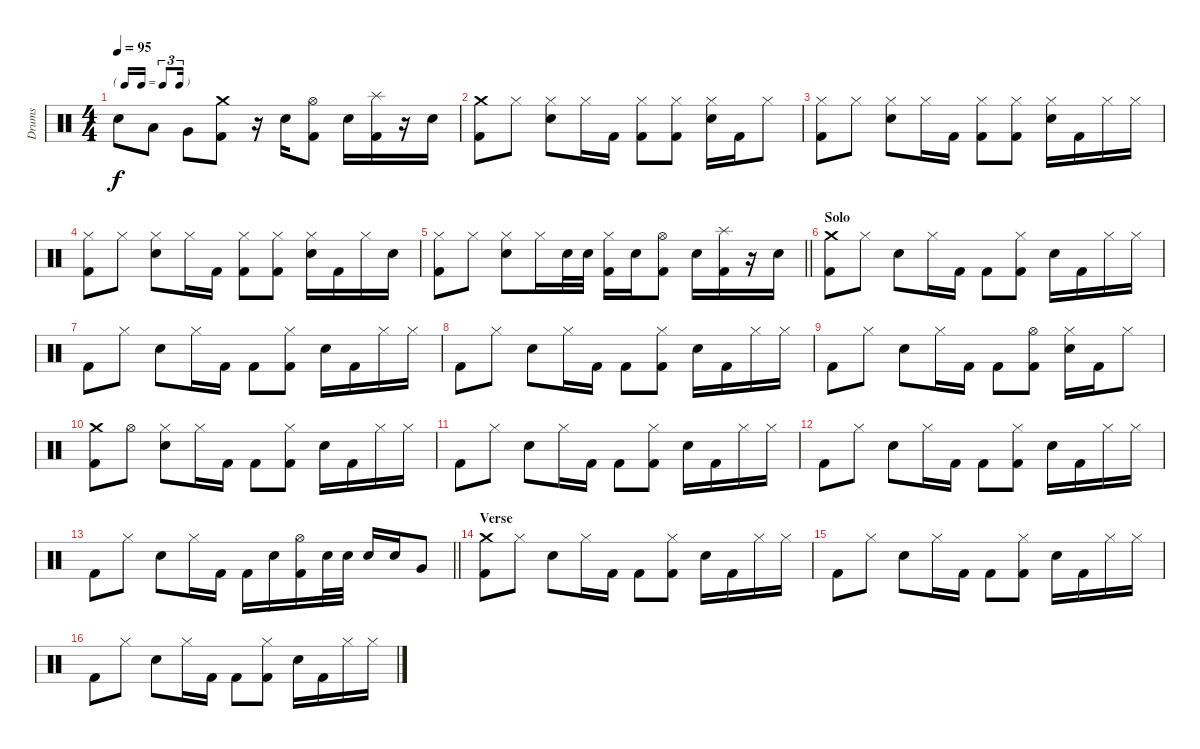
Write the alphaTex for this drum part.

\track ("Drums" "Drums") {instrument percussion}
\staff {score}
\articulation defaults
\ts (4 4)
\tf triplet16th
\tempo 95
\clef neutral
\ks c "Snare (hit) 2".8{dy f} "Low Tom (hit)".8 "Very Low Tom (hit)".8
("Crash medium (hit)" "Kick (hit) 2").8 r.16 "Snare (hit) 2".16 ("Hi-Hat (open)" "Kick (hit) 2").8 "Snare (hit) 2".16 ("Splash (hit)" "Kick (hit) 2").16 r.16 "Snare (hit) 2".16 |
("Crash medium (hit)" "Kick (hit) 2").8 "Hi-Hat (closed)".8 ("Hi-Hat (closed)" "Snare (hit) 2").8 "Hi-Hat (closed)".16 "Kick (hit) 2".16 ("Hi-Hat (closed)" "Kick (hit) 2").8 ("Hi-Hat (closed)" "Kick (hit) 2").8 ("Hi-Hat (closed)" "Snare (hit) 2").16 "Kick (hit) 2".16 "Hi-Hat (closed)".8 |
("Hi-Hat (closed)" "Kick (hit) 2").8 "Hi-Hat (closed)".8 ("Hi-Hat (closed)" "Snare (hit) 2").8 "Hi-Hat (closed)".16 "Kick (hit) 2".16 ("Hi-Hat (closed)" "Kick (hit) 2").8 ("Hi-Hat (closed)" "Kick (hit) 2").8 ("Hi-Hat (closed)" "Snare (hit) 2").16 "Kick (hit) 2".16 "Hi-Hat (closed)".16 "Hi-Hat (closed)".16 |
("Hi-Hat (closed)" "Kick (hit) 2").8 "Hi-Hat (closed)".8 ("Hi-Hat (closed)" "Snare (hit) 2").8 "Hi-Hat (closed)".16 "Kick (hit) 2".16 ("Hi-Hat (closed)" "Kick (hit) 2").8 ("Hi-Hat (closed)" "Kick (hit) 2").8 ("Hi-Hat (closed)" "Snare (hit) 2").16 "Kick (hit) 2".16 "Hi-Hat (closed)".16 "Snare (hit) 2".16 |
\barLineRight lightlight
("Hi-Hat (closed)" "Kick (hit) 2").8 "Hi-Hat (closed)".8 ("Hi-Hat (closed)" "Snare (hit) 2").8 "Hi-Hat (closed)".16 "Snare (hit) 2".32 "Snare (hit) 2".32 ("Hi-Hat (closed)" "Kick (hit) 2").16 "Snare (hit) 2".16 ("Hi-Hat (open)" "Kick (hit) 2").8 "Snare (hit) 2".16 ("Splash (hit)" "Kick (hit) 2").16 r.16 "Snare (hit) 2".16 |
\section ("" "Solo")
("Crash medium (hit)" "Kick (hit) 2").8 "Hi-Hat (closed)".8 "Snare (hit) 2".8 "Hi-Hat (closed)".16 "Kick (hit) 2".16 "Kick (hit) 2".8 ("Hi-Hat (closed)" "Kick (hit) 2").8 "Snare (hit) 2".16 "Kick (hit) 2".16 "Hi-Hat (closed)".16 "Hi-Hat (closed)".16 |
"Kick (hit) 2".8 "Hi-Hat (closed)".8 "Snare (hit) 2".8 "Hi-Hat (closed)".16 "Kick (hit) 2".16 "Kick (hit) 2".8 ("Hi-Hat (closed)" "Kick (hit) 2").8 "Snare (hit) 2".16 "Kick (hit) 2".16 "Hi-Hat (closed)".16 "Hi-Hat (closed)".16 |
"Kick (hit) 2".8 "Hi-Hat (closed)".8 "Snare (hit) 2".8 "Hi-Hat (closed)".16 "Kick (hit) 2".16 "Kick (hit) 2".8 ("Hi-Hat (closed)" "Kick (hit) 2").8 "Snare (hit) 2".16 "Kick (hit) 2".16 "Hi-Hat (closed)".16 "Hi-Hat (closed)".16 |
"Kick (hit) 2".8 "Hi-Hat (closed)".8 "Snare (hit) 2".8 "Hi-Hat (closed)".16 "Kick (hit) 2".16 "Kick (hit) 2".8 ("Hi-Hat (open)" "Kick (hit) 2").8 ("Hi-Hat (closed)" "Snare (hit) 2").16 "Kick (hit) 2".16 "Hi-Hat (closed)".8 |
("Crash medium (hit)" "Kick (hit) 2").8 "Hi-Hat (open)".8 ("Hi-Hat (closed)" "Snare (hit) 2").8 "Hi-Hat (closed)".16 "Kick (hit) 2".16 "Kick (hit) 2".8 ("Hi-Hat (closed)" "Kick (hit) 2").8 "Snare (hit) 2".16 "Kick (hit) 2".16 "Hi-Hat (closed)".16 "Hi-Hat (closed)".16 |
"Kick (hit) 2".8 "Hi-Hat (closed)".8 "Snare (hit) 2".8 "Hi-Hat (closed)".16 "Kick (hit) 2".16 "Kick (hit) 2".8 ("Hi-Hat (closed)" "Kick (hit) 2").8 "Snare (hit) 2".16 "Kick (hit) 2".16 "Hi-Hat (closed)".16 "Hi-Hat (closed)".16 |
"Kick (hit) 2".8 "Hi-Hat (closed)".8 "Snare (hit) 2".8 "Hi-Hat (closed)".16 "Kick (hit) 2".16 "Kick (hit) 2".8 ("Hi-Hat (closed)" "Kick (hit) 2").8 "Snare (hit) 2".16 "Kick (hit) 2".16 "Hi-Hat (closed)".16 "Hi-Hat (closed)".16 |
\barLineRight lightlight "Kick (hit) 2".8 "Hi-Hat (closed)".8 "Snare (hit) 2".8 "Hi-Hat (closed)".16 "Kick (hit) 2".16 "Kick (hit) 2".16 "Snare (hit) 2".16
("Hi-Hat (open)" "Kick (hit) 2").16 "Snare (hit) 2".32 "Snare (hit) 2".32 "Snare (hit) 2".16 "Snare (hit) 2".16 "Very Low Tom (hit)".8 |
\section ("" "Verse")
("Crash medium (hit)" "Kick (hit) 2").8 "Hi-Hat (closed)".8 "Snare (hit) 2".8 "Hi-Hat (closed)".16 "Kick (hit) 2".16 "Kick (hit) 2".8 ("Hi-Hat (closed)" "Kick (hit) 2").8 "Snare (hit) 2".16 "Kick (hit) 2".16 "Hi-Hat (closed)".16 "Hi-Hat (closed)".16 |
"Kick (hit) 2".8 "Hi-Hat (closed)".8 "Snare (hit) 2".8 "Hi-Hat (closed)".16 "Kick (hit) 2".16 "Kick (hit) 2".8 ("Hi-Hat (closed)" "Kick (hit) 2").8 "Snare (hit) 2".16 "Kick (hit) 2".16 "Hi-Hat (closed)".16 "Hi-Hat (closed)".16 |
"Kick (hit) 2".8 "Hi-Hat (closed)".8 "Snare (hit) 2".8 "Hi-Hat (closed)".16 "Kick (hit) 2".16 "Kick (hit) 2".8 ("Hi-Hat (closed)" "Kick (hit) 2").8 "Snare (hit) 2".16 "Kick (hit) 2".16 "Hi-Hat (closed)".16 "Hi-Hat (closed)".16
